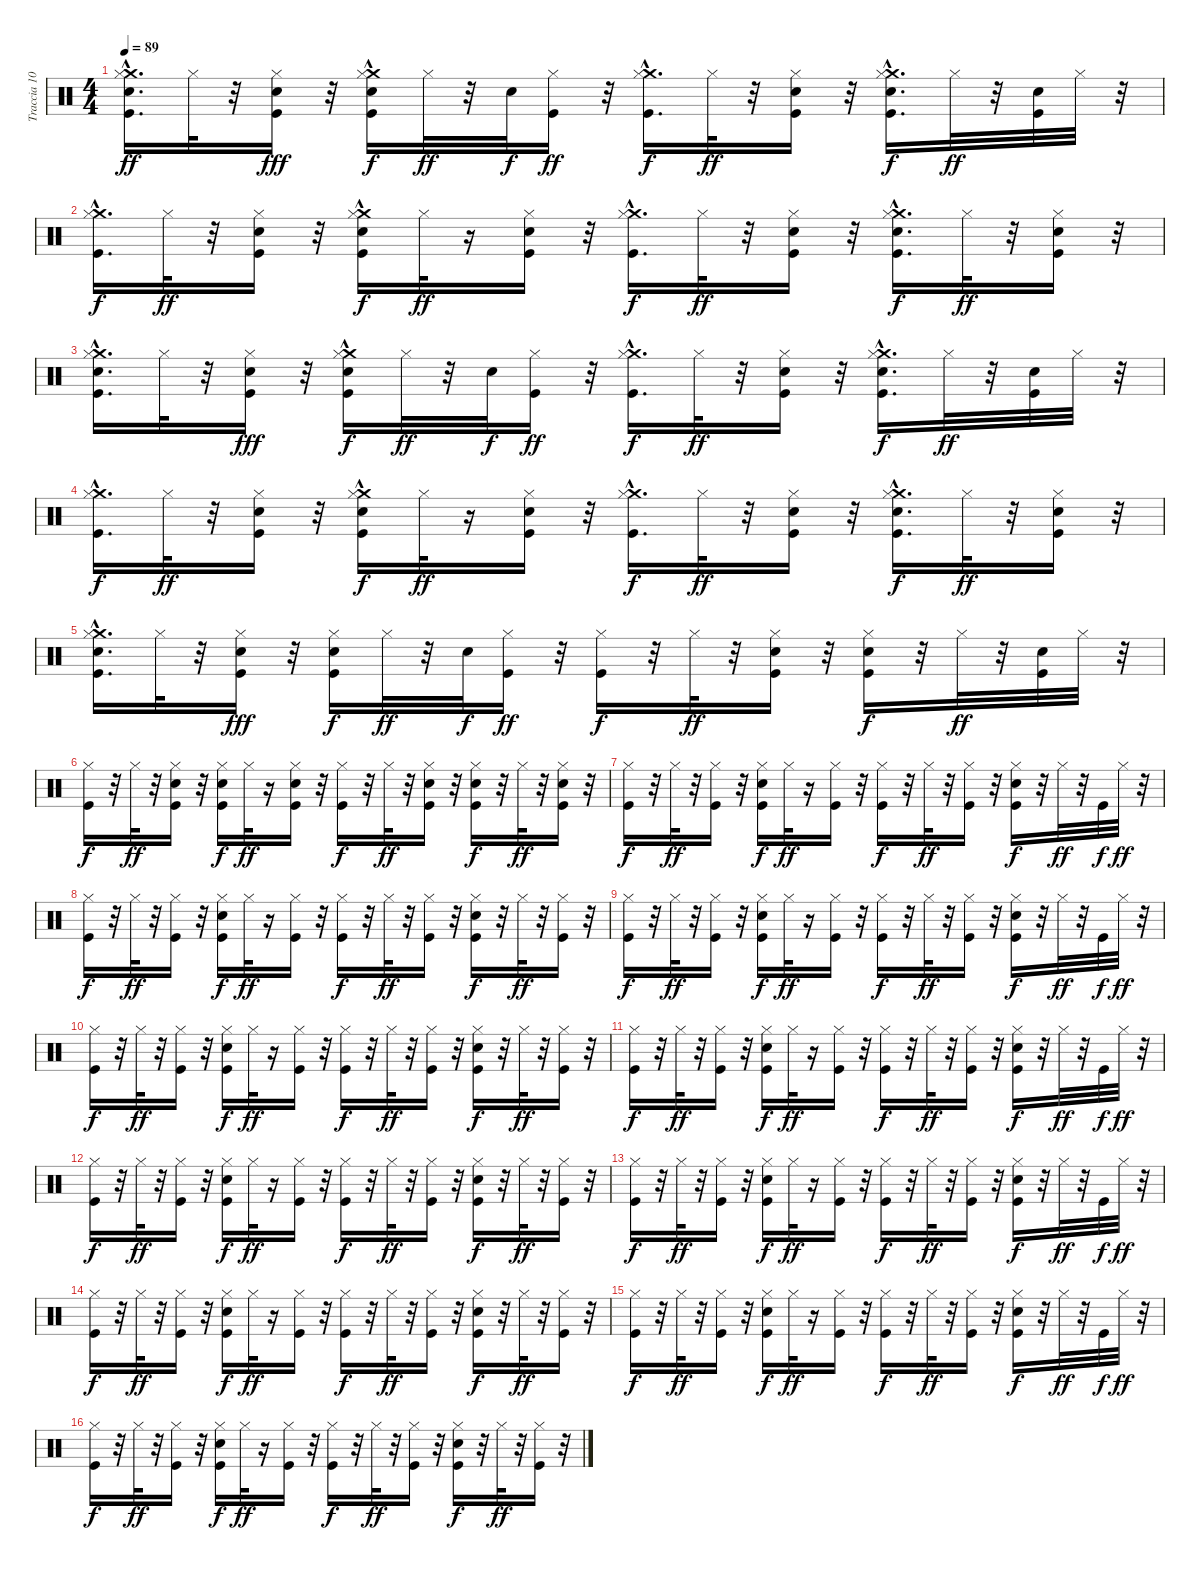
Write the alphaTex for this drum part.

\track ("Traccia 10" "Traccia 10") {instrument percussion}
\staff {score}
\articulation defaults
\ts (4 4)
\tempo 89
\clef neutral
\ks c
("Kick (hit)" "Crash medium (hit)"{hac} "Hi-Hat (closed)" "Snare (hit)"{hac}).16{d dy ff} "Hi-Hat (closed)".32 r.32 ("Kick (hit)" "Hi-Hat (closed)" "Snare (hit)").16{dy fff} r.32 ("Kick (hit)" "Crash medium (hit)"{hac} "Electric Snare (hit)" "Hi-Hat (closed)").16{dy f} "Hi-Hat (closed)".32{dy ff} r.32 "Snare (hit)".32{dy f} ("Kick (hit)" "Hi-Hat (closed)").16{dy ff} r.32 ("Kick (hit)" "Crash medium (hit)"{hac} "Hi-Hat (closed)").16{d dy f} "Hi-Hat (closed)".32{dy ff} r.32 ("Kick (hit)" "Snare (hit)" "Hi-Hat (closed)").16 r.32 ("Kick (hit)" "Crash medium (hit)"{hac} "Electric Snare (hit)" "Hi-Hat (closed)").16{d dy f} "Hi-Hat (closed)".32{dy ff} r.32 ("Kick (hit)" "Snare (hit)").32 "Hi-Hat (closed)".32 r.32 |
("Kick (hit)" "Crash medium (hit)"{hac} "Hi-Hat (closed)").16{d dy f} "Hi-Hat (closed)".32{dy ff} r.32 ("Kick (hit)" "Snare (hit)" "Hi-Hat (closed)").16 r.32 ("Kick (hit)" "Crash medium (hit)"{hac} "Electric Snare (hit)" "Hi-Hat (closed)").16{dy f} "Hi-Hat (closed)".32{dy ff} r.16 ("Kick (hit)" "Hi-Hat (closed)" "Snare (hit)").16 r.32 ("Kick (hit)" "Crash medium (hit)"{hac} "Hi-Hat (closed)").16{d dy f} "Hi-Hat (closed)".32{dy ff} r.32 ("Snare (hit)" "Kick (hit)" "Hi-Hat (closed)").16 r.32 ("Kick (hit)" "Crash medium (hit)"{hac} "Electric Snare (hit)" "Hi-Hat (closed)").16{d dy f} "Hi-Hat (closed)".32{dy ff} r.32 ("Kick (hit)" "Snare (hit)" "Hi-Hat (closed)").16 r.32 |
("Kick (hit)" "Crash medium (hit)"{hac} "Hi-Hat (closed)" "Snare (hit)"{hac}).16{d} "Hi-Hat (closed)".32 r.32 ("Kick (hit)" "Hi-Hat (closed)" "Snare (hit)").16{dy fff} r.32 ("Kick (hit)" "Crash medium (hit)"{hac} "Electric Snare (hit)" "Hi-Hat (closed)").16{dy f} "Hi-Hat (closed)".32{dy ff} r.32 "Snare (hit)".32{dy f} ("Kick (hit)" "Hi-Hat (closed)").16{dy ff} r.32 ("Kick (hit)" "Crash medium (hit)"{hac} "Hi-Hat (closed)").16{d dy f} "Hi-Hat (closed)".32{dy ff} r.32 ("Kick (hit)" "Snare (hit)" "Hi-Hat (closed)").16 r.32 ("Kick (hit)" "Crash medium (hit)"{hac} "Electric Snare (hit)" "Hi-Hat (closed)").16{d dy f} "Hi-Hat (closed)".32{dy ff} r.32 ("Kick (hit)" "Snare (hit)").32 "Hi-Hat (closed)".32 r.32 |
("Kick (hit)" "Crash medium (hit)"{hac} "Hi-Hat (closed)").16{d dy f} "Hi-Hat (closed)".32{dy ff} r.32 ("Kick (hit)" "Snare (hit)" "Hi-Hat (closed)").16 r.32 ("Kick (hit)" "Crash medium (hit)"{hac} "Electric Snare (hit)" "Hi-Hat (closed)").16{dy f} "Hi-Hat (closed)".32{dy ff} r.16 ("Kick (hit)" "Hi-Hat (closed)" "Snare (hit)").16 r.32 ("Kick (hit)" "Crash medium (hit)"{hac} "Hi-Hat (closed)").16{d dy f} "Hi-Hat (closed)".32{dy ff} r.32 ("Snare (hit)" "Kick (hit)" "Hi-Hat (closed)").16 r.32 ("Kick (hit)" "Crash medium (hit)"{hac} "Electric Snare (hit)" "Hi-Hat (closed)").16{d dy f} "Hi-Hat (closed)".32{dy ff} r.32 ("Kick (hit)" "Snare (hit)" "Hi-Hat (closed)").16 r.32 |
("Kick (hit)" "Crash medium (hit)"{hac} "Hi-Hat (closed)" "Snare (hit)"{hac}).16{d} "Hi-Hat (closed)".32 r.32 ("Kick (hit)" "Hi-Hat (closed)" "Snare (hit)").16{dy fff} r.32 ("Kick (hit)" "Electric Snare (hit)" "Hi-Hat (closed)").16{dy f} "Hi-Hat (closed)".32{dy ff} r.32 "Snare (hit)".32{dy f} ("Kick (hit)" "Hi-Hat (closed)").16{dy ff} r.32 ("Kick (hit)" "Hi-Hat (closed)").16{dy f} r.32 "Hi-Hat (closed)".32{dy ff} r.32 ("Kick (hit)" "Snare (hit)" "Hi-Hat (closed)").16 r.32 ("Kick (hit)" "Electric Snare (hit)" "Hi-Hat (closed)").16{dy f} r.32 "Hi-Hat (closed)".32{dy ff} r.32 ("Kick (hit)" "Snare (hit)").32 "Hi-Hat (closed)".32 r.32 |
("Kick (hit)" "Hi-Hat (closed)").16{dy f} r.32 "Hi-Hat (closed)".32{dy ff} r.32 ("Kick (hit)" "Snare (hit)" "Hi-Hat (closed)").16 r.32 ("Kick (hit)" "Electric Snare (hit)" "Hi-Hat (closed)").16{dy f} "Hi-Hat (closed)".32{dy ff} r.16 ("Kick (hit)" "Hi-Hat (closed)" "Snare (hit)").16 r.32 ("Kick (hit)" "Hi-Hat (closed)").16{dy f} r.32 "Hi-Hat (closed)".32{dy ff} r.32 ("Snare (hit)" "Kick (hit)" "Hi-Hat (closed)").16 r.32 ("Kick (hit)" "Electric Snare (hit)" "Hi-Hat (closed)").16{dy f} r.32 "Hi-Hat (closed)".32{dy ff} r.32 ("Kick (hit)" "Snare (hit)" "Hi-Hat (closed)").16 r.32 |
("Kick (hit)" "Hi-Hat (closed)").16{dy f} r.32 "Hi-Hat (closed)".32{dy ff} r.32 ("Kick (hit)" "Hi-Hat (closed)").16 r.32 ("Kick (hit)" "Electric Snare (hit)" "Hi-Hat (closed)").16{dy f} "Hi-Hat (closed)".32{dy ff} r.16 ("Kick (hit)" "Hi-Hat (closed)").16 r.32 ("Kick (hit)" "Hi-Hat (closed)").16{dy f} r.32 "Hi-Hat (closed)".32{dy ff} r.32 ("Kick (hit)" "Hi-Hat (closed)").16 r.32 ("Kick (hit)" "Electric Snare (hit)" "Hi-Hat (closed)").16{dy f} r.32 "Hi-Hat (closed)".32{dy ff} r.32 "Kick (hit)".32{dy f} "Hi-Hat (closed)".32{dy ff} r.32 |
("Kick (hit)" "Hi-Hat (closed)").16{dy f} r.32 "Hi-Hat (closed)".32{dy ff} r.32 ("Kick (hit)" "Hi-Hat (closed)").16 r.32 ("Kick (hit)" "Electric Snare (hit)" "Hi-Hat (closed)").16{dy f} "Hi-Hat (closed)".32{dy ff} r.16 ("Kick (hit)" "Hi-Hat (closed)").16 r.32 ("Kick (hit)" "Hi-Hat (closed)").16{dy f} r.32 "Hi-Hat (closed)".32{dy ff} r.32 ("Kick (hit)" "Hi-Hat (closed)").16 r.32 ("Kick (hit)" "Electric Snare (hit)" "Hi-Hat (closed)").16{dy f} r.32 "Hi-Hat (closed)".32{dy ff} r.32 ("Kick (hit)" "Hi-Hat (closed)").16 r.32 |
("Kick (hit)" "Hi-Hat (closed)").16{dy f} r.32 "Hi-Hat (closed)".32{dy ff} r.32 ("Kick (hit)" "Hi-Hat (closed)").16 r.32 ("Kick (hit)" "Electric Snare (hit)" "Hi-Hat (closed)").16{dy f} "Hi-Hat (closed)".32{dy ff} r.16 ("Kick (hit)" "Hi-Hat (closed)").16 r.32 ("Kick (hit)" "Hi-Hat (closed)").16{dy f} r.32 "Hi-Hat (closed)".32{dy ff} r.32 ("Kick (hit)" "Hi-Hat (closed)").16 r.32 ("Kick (hit)" "Electric Snare (hit)" "Hi-Hat (closed)").16{dy f} r.32 "Hi-Hat (closed)".32{dy ff} r.32 "Kick (hit)".32{dy f} "Hi-Hat (closed)".32{dy ff} r.32 |
("Kick (hit)" "Hi-Hat (closed)").16{dy f} r.32 "Hi-Hat (closed)".32{dy ff} r.32 ("Kick (hit)" "Hi-Hat (closed)").16 r.32 ("Kick (hit)" "Electric Snare (hit)" "Hi-Hat (closed)").16{dy f} "Hi-Hat (closed)".32{dy ff} r.16 ("Kick (hit)" "Hi-Hat (closed)").16 r.32 ("Kick (hit)" "Hi-Hat (closed)").16{dy f} r.32 "Hi-Hat (closed)".32{dy ff} r.32 ("Kick (hit)" "Hi-Hat (closed)").16 r.32 ("Kick (hit)" "Electric Snare (hit)" "Hi-Hat (closed)").16{dy f} r.32 "Hi-Hat (closed)".32{dy ff} r.32 ("Kick (hit)" "Hi-Hat (closed)").16 r.32 |
("Kick (hit)" "Hi-Hat (closed)").16{dy f} r.32 "Hi-Hat (closed)".32{dy ff} r.32 ("Kick (hit)" "Hi-Hat (closed)").16 r.32 ("Kick (hit)" "Electric Snare (hit)" "Hi-Hat (closed)").16{dy f} "Hi-Hat (closed)".32{dy ff} r.16 ("Kick (hit)" "Hi-Hat (closed)").16 r.32 ("Kick (hit)" "Hi-Hat (closed)").16{dy f} r.32 "Hi-Hat (closed)".32{dy ff} r.32 ("Kick (hit)" "Hi-Hat (closed)").16 r.32 ("Kick (hit)" "Electric Snare (hit)" "Hi-Hat (closed)").16{dy f} r.32 "Hi-Hat (closed)".32{dy ff} r.32 "Kick (hit)".32{dy f} "Hi-Hat (closed)".32{dy ff} r.32 |
("Kick (hit)" "Hi-Hat (closed)").16{dy f} r.32 "Hi-Hat (closed)".32{dy ff} r.32 ("Kick (hit)" "Hi-Hat (closed)").16 r.32 ("Kick (hit)" "Electric Snare (hit)" "Hi-Hat (closed)").16{dy f} "Hi-Hat (closed)".32{dy ff} r.16 ("Kick (hit)" "Hi-Hat (closed)").16 r.32 ("Kick (hit)" "Hi-Hat (closed)").16{dy f} r.32 "Hi-Hat (closed)".32{dy ff} r.32 ("Kick (hit)" "Hi-Hat (closed)").16 r.32 ("Kick (hit)" "Electric Snare (hit)" "Hi-Hat (closed)").16{dy f} r.32 "Hi-Hat (closed)".32{dy ff} r.32 ("Kick (hit)" "Hi-Hat (closed)").16 r.32 |
("Kick (hit)" "Hi-Hat (closed)").16{dy f} r.32 "Hi-Hat (closed)".32{dy ff} r.32 ("Kick (hit)" "Hi-Hat (closed)").16 r.32 ("Kick (hit)" "Electric Snare (hit)" "Hi-Hat (closed)").16{dy f} "Hi-Hat (closed)".32{dy ff} r.16 ("Kick (hit)" "Hi-Hat (closed)").16 r.32 ("Kick (hit)" "Hi-Hat (closed)").16{dy f} r.32 "Hi-Hat (closed)".32{dy ff} r.32 ("Kick (hit)" "Hi-Hat (closed)").16 r.32 ("Kick (hit)" "Electric Snare (hit)" "Hi-Hat (closed)").16{dy f} r.32 "Hi-Hat (closed)".32{dy ff} r.32 "Kick (hit)".32{dy f} "Hi-Hat (closed)".32{dy ff} r.32 |
("Kick (hit)" "Hi-Hat (closed)").16{dy f} r.32 "Hi-Hat (closed)".32{dy ff} r.32 ("Kick (hit)" "Hi-Hat (closed)").16 r.32 ("Kick (hit)" "Electric Snare (hit)" "Hi-Hat (closed)").16{dy f} "Hi-Hat (closed)".32{dy ff} r.16 ("Kick (hit)" "Hi-Hat (closed)").16 r.32 ("Kick (hit)" "Hi-Hat (closed)").16{dy f} r.32 "Hi-Hat (closed)".32{dy ff} r.32 ("Kick (hit)" "Hi-Hat (closed)").16 r.32 ("Kick (hit)" "Electric Snare (hit)" "Hi-Hat (closed)").16{dy f} r.32 "Hi-Hat (closed)".32{dy ff} r.32 ("Kick (hit)" "Hi-Hat (closed)").16 r.32 |
("Kick (hit)" "Hi-Hat (closed)").16{dy f} r.32 "Hi-Hat (closed)".32{dy ff} r.32 ("Kick (hit)" "Hi-Hat (closed)").16 r.32 ("Kick (hit)" "Electric Snare (hit)" "Hi-Hat (closed)").16{dy f} "Hi-Hat (closed)".32{dy ff} r.16 ("Kick (hit)" "Hi-Hat (closed)").16 r.32 ("Kick (hit)" "Hi-Hat (closed)").16{dy f} r.32 "Hi-Hat (closed)".32{dy ff} r.32 ("Kick (hit)" "Hi-Hat (closed)").16 r.32 ("Kick (hit)" "Electric Snare (hit)" "Hi-Hat (closed)").16{dy f} r.32 "Hi-Hat (closed)".32{dy ff} r.32 "Kick (hit)".32{dy f} "Hi-Hat (closed)".32{dy ff} r.32 |
("Kick (hit)" "Hi-Hat (closed)").16{dy f} r.32 "Hi-Hat (closed)".32{dy ff} r.32 ("Kick (hit)" "Hi-Hat (closed)").16 r.32 ("Kick (hit)" "Electric Snare (hit)" "Hi-Hat (closed)").16{dy f} "Hi-Hat (closed)".32{dy ff} r.16 ("Kick (hit)" "Hi-Hat (closed)").16 r.32 ("Kick (hit)" "Hi-Hat (closed)").16{dy f} r.32 "Hi-Hat (closed)".32{dy ff} r.32 ("Kick (hit)" "Hi-Hat (closed)").16 r.32 ("Kick (hit)" "Electric Snare (hit)" "Hi-Hat (closed)").16{dy f} r.32 "Hi-Hat (closed)".32{dy ff} r.32 ("Kick (hit)" "Hi-Hat (closed)").16 r.32
